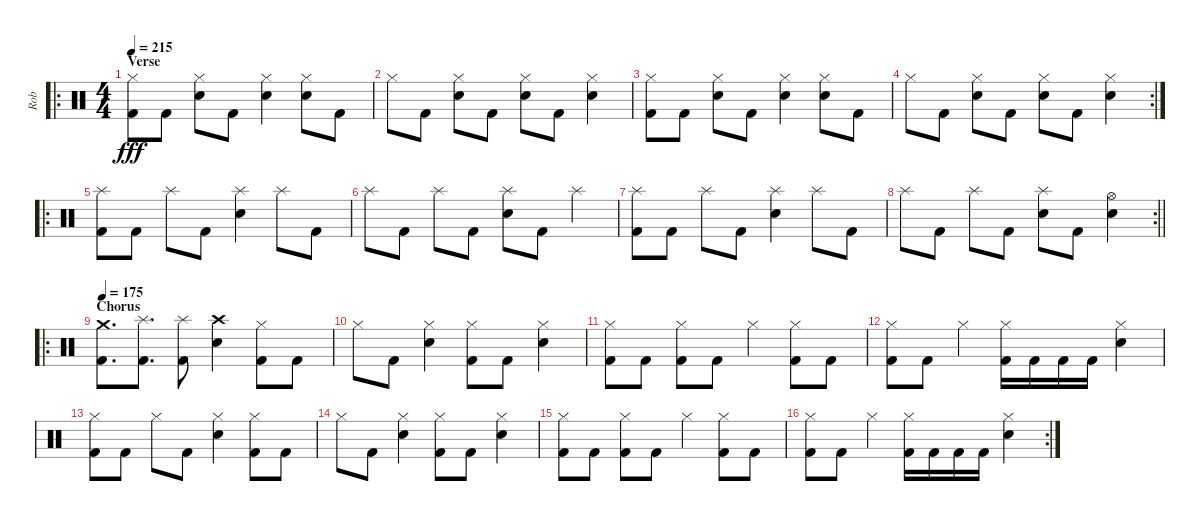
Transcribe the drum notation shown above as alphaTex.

\track ("Rob" "Rob") {instrument percussion}
\staff {score}
\articulation defaults
\ro
\ts (4 4)
\section ("" "Verse")
\tempo 215
\clef neutral
\ks c
("Hi-Hat (closed)" "Kick (hit) 2").8{dy fff volume 16} "Kick (hit) 2".8 ("Hi-Hat (closed)" "Electric Snare (hit)").8 "Kick (hit) 2".8 ("Hi-Hat (closed)" "Electric Snare (hit)").4 ("Hi-Hat (closed)" "Electric Snare (hit)").8 "Kick (hit) 2".8 |
"Hi-Hat (closed)".8 "Kick (hit) 2".8 ("Hi-Hat (closed)" "Electric Snare (hit)").8 "Kick (hit) 2".8 ("Hi-Hat (closed)" "Electric Snare (hit)").8 "Kick (hit) 2".8 ("Hi-Hat (closed)" "Electric Snare (hit)").4 |
("Hi-Hat (closed)" "Kick (hit) 2").8 "Kick (hit) 2".8 ("Hi-Hat (closed)" "Electric Snare (hit)").8 "Kick (hit) 2".8 ("Hi-Hat (closed)" "Electric Snare (hit)").4 ("Hi-Hat (closed)" "Electric Snare (hit)").8 "Kick (hit) 2".8 |
\rc 2 "Hi-Hat (closed)".8 "Kick (hit) 2".8
("Hi-Hat (closed)" "Electric Snare (hit)").8 "Kick (hit) 2".8 ("Hi-Hat (closed)" "Electric Snare (hit)").8 "Kick (hit) 2".8 ("Hi-Hat (closed)" "Electric Snare (hit)").4 |
\ro
("Splash (hit)" "Kick (hit) 2").8 "Kick (hit) 2".8 "Splash (hit)".8 "Kick (hit) 2".8 ("Splash (hit)" "Electric Snare (hit)").4 "Splash (hit)".8 "Kick (hit) 2".8 |
"Splash (hit)".8 "Kick (hit) 2".8 "Splash (hit)".8 "Kick (hit) 2".8 ("Splash (hit)" "Electric Snare (hit)").8 "Kick (hit) 2".8 "Splash (hit)".4 |
("Splash (hit)" "Kick (hit) 2").8 "Kick (hit) 2".8 "Splash (hit)".8 "Kick (hit) 2".8 ("Splash (hit)" "Electric Snare (hit)").4 "Splash (hit)".8 "Kick (hit) 2".8 |
\rc 2
\barLineRight lightlight "Splash (hit)".8 "Kick (hit) 2".8 "Splash (hit)".8 "Kick (hit) 2".8
("Splash (hit)" "Electric Snare (hit)").8 "Kick (hit) 2".8 ("Hi-Hat (open)" "Electric Snare (hit)").4 |
\ro
\section ("" "Chorus")
\tempo 175
("Crash medium (hit)" "Kick (hit) 2").8{d} ("Splash (hit)" "Kick (hit) 2").8{d} ("Splash (hit)" "Kick (hit) 2").8 ("Crash high (hit)" "Electric Snare (hit)").4 ("Hi-Hat (closed)" "Kick (hit) 2").8 "Kick (hit) 2".8 |
"Hi-Hat (closed)".8 "Kick (hit) 2".8 ("Hi-Hat (closed)" "Electric Snare (hit)").4 ("Hi-Hat (closed)" "Kick (hit) 2").8 "Kick (hit) 2".8 ("Hi-Hat (closed)" "Electric Snare (hit)").4 |
("Hi-Hat (closed)" "Kick (hit) 2").8 "Kick (hit) 2".8 ("Hi-Hat (closed)" "Kick (hit) 2").8 "Kick (hit) 2".8 "Hi-Hat (closed)".4 ("Hi-Hat (closed)" "Kick (hit) 2").8 "Kick (hit) 2".8 |
("Hi-Hat (closed)" "Kick (hit) 2").8 "Kick (hit) 2".8 "Hi-Hat (closed)".4 ("Hi-Hat (closed)" "Kick (hit) 2").16 "Kick (hit) 2".16 "Kick (hit) 2".16 "Kick (hit) 2".16 ("Hi-Hat (closed)" "Electric Snare (hit)").4 |
("Hi-Hat (closed)" "Kick (hit) 2").8 "Kick (hit) 2".8 "Hi-Hat (closed)".8 "Kick (hit) 2".8 ("Hi-Hat (closed)" "Electric Snare (hit)").4 ("Hi-Hat (closed)" "Kick (hit) 2").8 "Kick (hit) 2".8 |
"Hi-Hat (closed)".8 "Kick (hit) 2".8 ("Hi-Hat (closed)" "Electric Snare (hit)").4 ("Hi-Hat (closed)" "Kick (hit) 2").8 "Kick (hit) 2".8 ("Hi-Hat (closed)" "Electric Snare (hit)").4 |
("Hi-Hat (closed)" "Kick (hit) 2").8 "Kick (hit) 2".8 ("Hi-Hat (closed)" "Kick (hit) 2").8 "Kick (hit) 2".8 "Hi-Hat (closed)".4 ("Hi-Hat (closed)" "Kick (hit) 2").8 "Kick (hit) 2".8 |
\rc 2
("Hi-Hat (closed)" "Kick (hit) 2").8 "Kick (hit) 2".8 "Hi-Hat (closed)".4 ("Hi-Hat (closed)" "Kick (hit) 2").16 "Kick (hit) 2".16 "Kick (hit) 2".16 "Kick (hit) 2".16 ("Hi-Hat (closed)" "Electric Snare (hit)").4
